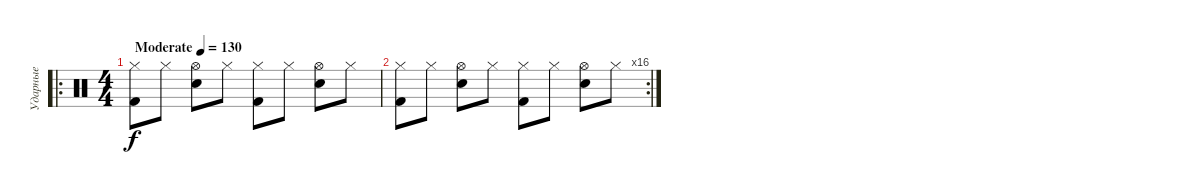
\track ("Ударные" "Ударные") {instrument percussion}
\staff {score}
\articulation defaults
\ro
\ts (4 4)
\tempo (130 "Moderate")
\clef neutral
\ks c
("Hi-Hat (closed)" "Kick (hit) 2").8{dy f} "Hi-Hat (closed)".8 ("Hi-Hat (open)" "Electric Snare (hit)").8 "Hi-Hat (closed)".8 ("Hi-Hat (closed)" "Kick (hit) 2").8 "Hi-Hat (closed)".8 ("Hi-Hat (open)" "Electric Snare (hit)").8 "Hi-Hat (closed)".8 |
\rc 16
("Hi-Hat (closed)" "Kick (hit) 2").8 "Hi-Hat (closed)".8 ("Hi-Hat (open)" "Electric Snare (hit)").8 "Hi-Hat (closed)".8 ("Hi-Hat (closed)" "Kick (hit) 2").8 "Hi-Hat (closed)".8 ("Hi-Hat (open)" "Electric Snare (hit)").8 "Hi-Hat (closed)".8
